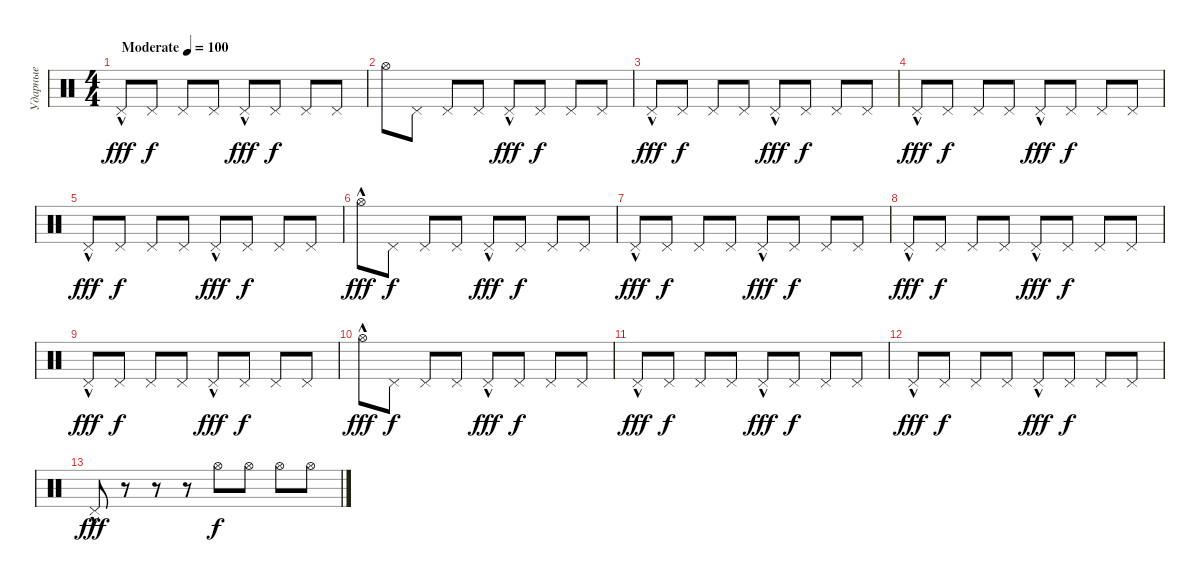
\track ("Ударные" "Ударные") {instrument percussion}
\staff {score}
\articulation defaults
\ts (4 4)
\tempo (100 "Moderate")
\clef neutral
\ks c "Pedal Hi-Hat (hit)"{hac}.8{dy fff} "Pedal Hi-Hat (hit)".8{dy f} "Pedal Hi-Hat (hit)".8 "Pedal Hi-Hat (hit)".8 "Pedal Hi-Hat (hit)"{hac}.8{dy fff} "Pedal Hi-Hat (hit)".8{dy f} "Pedal Hi-Hat (hit)".8 "Pedal Hi-Hat (hit)".8
|
"Hi-Hat (open)".8 "Pedal Hi-Hat (hit)".8 "Pedal Hi-Hat (hit)".8 "Pedal Hi-Hat (hit)".8 "Pedal Hi-Hat (hit)"{hac}.8{dy fff} "Pedal Hi-Hat (hit)".8{dy f} "Pedal Hi-Hat (hit)".8 "Pedal Hi-Hat (hit)".8 |
"Pedal Hi-Hat (hit)"{hac}.8{dy fff} "Pedal Hi-Hat (hit)".8{dy f} "Pedal Hi-Hat (hit)".8 "Pedal Hi-Hat (hit)".8 "Pedal Hi-Hat (hit)"{hac}.8{dy fff} "Pedal Hi-Hat (hit)".8{dy f} "Pedal Hi-Hat (hit)".8 "Pedal Hi-Hat (hit)".8 |
"Pedal Hi-Hat (hit)"{hac}.8{dy fff} "Pedal Hi-Hat (hit)".8{dy f} "Pedal Hi-Hat (hit)".8 "Pedal Hi-Hat (hit)".8 "Pedal Hi-Hat (hit)"{hac}.8{dy fff} "Pedal Hi-Hat (hit)".8{dy f} "Pedal Hi-Hat (hit)".8 "Pedal Hi-Hat (hit)".8 |
"Pedal Hi-Hat (hit)"{hac}.8{dy fff} "Pedal Hi-Hat (hit)".8{dy f} "Pedal Hi-Hat (hit)".8 "Pedal Hi-Hat (hit)".8 "Pedal Hi-Hat (hit)"{hac}.8{dy fff} "Pedal Hi-Hat (hit)".8{dy f} "Pedal Hi-Hat (hit)".8 "Pedal Hi-Hat (hit)".8 |
"Hi-Hat (open)"{hac}.8{dy fff} "Pedal Hi-Hat (hit)".8{dy f} "Pedal Hi-Hat (hit)".8 "Pedal Hi-Hat (hit)".8 "Pedal Hi-Hat (hit)"{hac}.8{dy fff} "Pedal Hi-Hat (hit)".8{dy f} "Pedal Hi-Hat (hit)".8 "Pedal Hi-Hat (hit)".8 |
"Pedal Hi-Hat (hit)"{hac}.8{dy fff} "Pedal Hi-Hat (hit)".8{dy f} "Pedal Hi-Hat (hit)".8 "Pedal Hi-Hat (hit)".8 "Pedal Hi-Hat (hit)"{hac}.8{dy fff} "Pedal Hi-Hat (hit)".8{dy f} "Pedal Hi-Hat (hit)".8 "Pedal Hi-Hat (hit)".8 |
"Pedal Hi-Hat (hit)"{hac}.8{dy fff} "Pedal Hi-Hat (hit)".8{dy f} "Pedal Hi-Hat (hit)".8 "Pedal Hi-Hat (hit)".8 "Pedal Hi-Hat (hit)"{hac}.8{dy fff} "Pedal Hi-Hat (hit)".8{dy f} "Pedal Hi-Hat (hit)".8 "Pedal Hi-Hat (hit)".8 |
"Pedal Hi-Hat (hit)"{hac}.8{dy fff} "Pedal Hi-Hat (hit)".8{dy f} "Pedal Hi-Hat (hit)".8 "Pedal Hi-Hat (hit)".8 "Pedal Hi-Hat (hit)"{hac}.8{dy fff} "Pedal Hi-Hat (hit)".8{dy f} "Pedal Hi-Hat (hit)".8 "Pedal Hi-Hat (hit)".8 |
"Hi-Hat (open)"{hac}.8{dy fff} "Pedal Hi-Hat (hit)".8{dy f} "Pedal Hi-Hat (hit)".8 "Pedal Hi-Hat (hit)".8 "Pedal Hi-Hat (hit)"{hac}.8{dy fff} "Pedal Hi-Hat (hit)".8{dy f} "Pedal Hi-Hat (hit)".8 "Pedal Hi-Hat (hit)".8 |
"Pedal Hi-Hat (hit)"{hac}.8{dy fff} "Pedal Hi-Hat (hit)".8{dy f} "Pedal Hi-Hat (hit)".8 "Pedal Hi-Hat (hit)".8 "Pedal Hi-Hat (hit)"{hac}.8{dy fff} "Pedal Hi-Hat (hit)".8{dy f} "Pedal Hi-Hat (hit)".8 "Pedal Hi-Hat (hit)".8 |
"Pedal Hi-Hat (hit)"{hac}.8{dy fff} "Pedal Hi-Hat (hit)".8{dy f} "Pedal Hi-Hat (hit)".8 "Pedal Hi-Hat (hit)".8 "Pedal Hi-Hat (hit)"{hac}.8{dy fff} "Pedal Hi-Hat (hit)".8{dy f} "Pedal Hi-Hat (hit)".8 "Pedal Hi-Hat (hit)".8 |
"Pedal Hi-Hat (hit)"{hac}.8{dy fff} r.8 r.8 r.8 "Hi-Hat (open)".8{dy f} "Hi-Hat (open)".8 "Hi-Hat (open)".8 "Hi-Hat (open)".8
